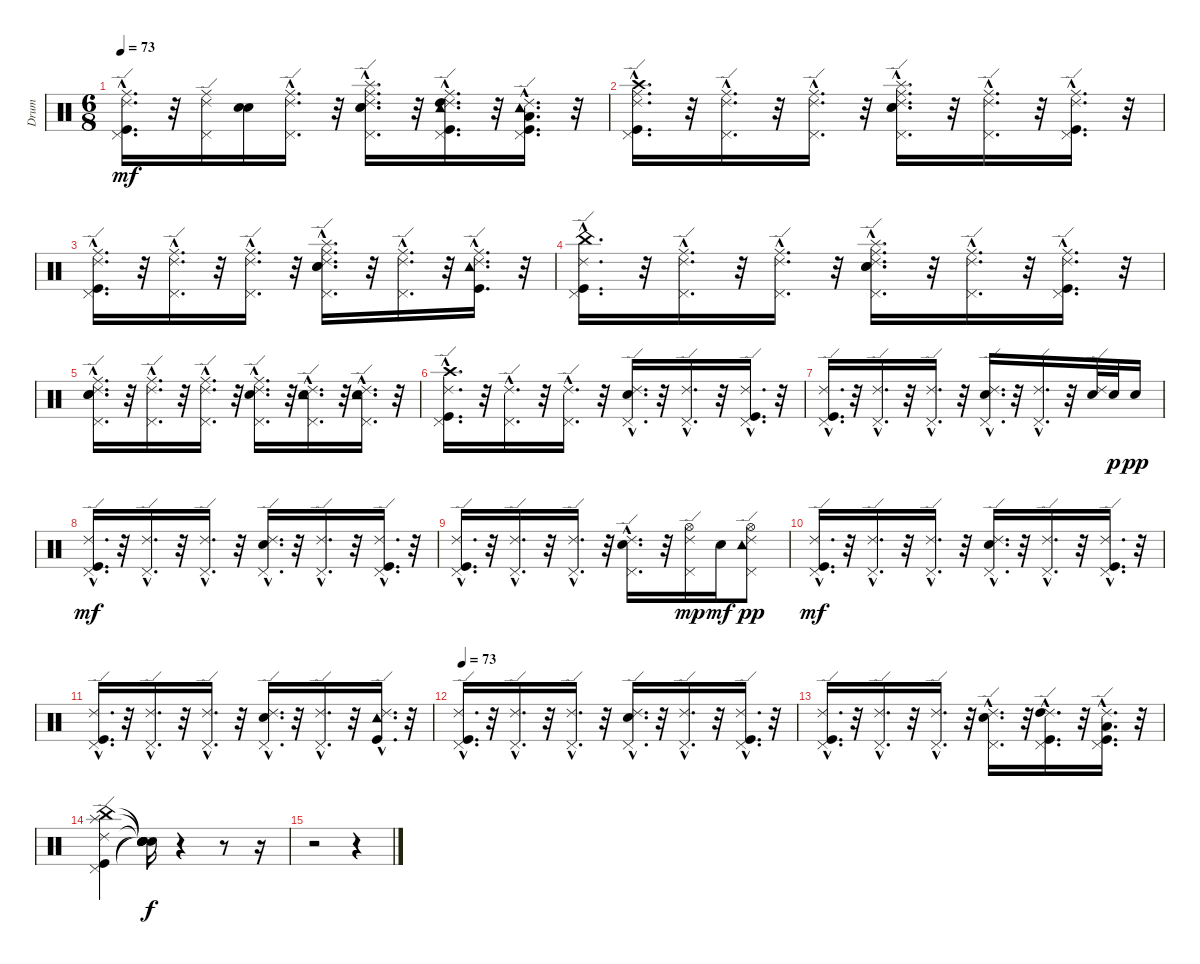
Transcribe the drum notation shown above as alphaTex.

\track ("Drum" "Drum") {instrument percussion}
\staff {score}
\articulation defaults
\ts (6 8)
\tempo 73
\clef neutral
\ks c
("Ride (edge) 2"{hac} "Pedal Hi-Hat (hit)"{hac} "Kick (hit)"{hac} "Ride (middle)"{hac}).16{d dy mf} r.32 ("Pedal Hi-Hat (hit)" "Ride (edge) 2" "Ride (middle)").16 ("Snare (hit) 2" "Electric Snare (hit)").16 ("Ride (edge) 2"{hac} "Pedal Hi-Hat (hit)"{hac} "Ride (middle)"{hac}).16{d} r.32 ("Ride (edge) 2"{hac} "Snare (hit) 2"{hac} "Splash (hit)"{hac} "Pedal Hi-Hat (hit)"{hac} "Electric Snare (hit)"{hac} "Ride (middle)"{hac}).16{d} r.32 ("Ride (edge) 2"{hac} "Pedal Hi-Hat (hit)"{hac} "Kick (hit)"{hac} "High Tom (hit)"{hac} "Ride (middle)"{hac} "Tambourine (hit)"{hac}).16{d} r.32 ("Ride (edge) 2"{hac} "Pedal Hi-Hat (hit)"{hac} "Kick (hit)"{hac} "Low Tom (hit)"{hac} "Tambourine (hit)"{hac}).16{d} r.32 |
("Crash high (hit)"{hac} "Pedal Hi-Hat (hit)"{hac} "Kick (hit)"{hac} "Ride (edge) 2"{hac} "Ride (middle)"{hac}).16{d} r.32 ("Ride (edge) 2"{hac} "Pedal Hi-Hat (hit)"{hac} "Ride (middle)"{hac}).16{d} r.32 ("Pedal Hi-Hat (hit)"{hac} "Ride (edge) 2"{hac} "Ride (middle)"{hac}).16{d} r.32 ("Splash (hit)"{hac} "Pedal Hi-Hat (hit)"{hac} "Snare (hit) 2"{hac} "Ride (edge) 2"{hac} "Electric Snare (hit)"{hac} "Ride (middle)"{hac}).16{d} r.32 ("Pedal Hi-Hat (hit)"{hac} "Ride (edge) 2"{hac} "Ride (middle)"{hac}).16{d} r.32 ("Pedal Hi-Hat (hit)"{hac} "Kick (hit)"{hac} "Ride (edge) 2"{hac} "Ride (middle)"{hac}).16{d} r.32 |
("Pedal Hi-Hat (hit)"{hac} "Ride (edge) 2"{hac} "Kick (hit)"{hac} "Ride (middle)"{hac}).16{d} r.32 ("Ride (edge) 2"{hac} "Pedal Hi-Hat (hit)"{hac} "Ride (middle)"{hac}).16{d} r.32 ("Pedal Hi-Hat (hit)"{hac} "Ride (edge) 2"{hac} "Ride (middle)"{hac}).16{d} r.32 ("Splash (hit)"{hac} "Pedal Hi-Hat (hit)"{hac} "Snare (hit) 2"{hac} "Ride (edge) 2"{hac} "Electric Snare (hit)"{hac} "Ride (middle)"{hac}).16{d} r.32 ("Pedal Hi-Hat (hit)"{hac} "Ride (edge) 2"{hac} "Ride (middle)"{hac}).16{d} r.32 ("Tambourine (hit)"{hac} "Ride (edge) 2"{hac} "Kick (hit)"{hac} "Ride (middle)"{hac}).16{d} r.32 |
("Kick (hit)"{hac} "Pedal Hi-Hat (hit)"{hac} "Ride (edge) 2"{hac} "China (hit)"{hac}).16{d} r.32 ("Pedal Hi-Hat (hit)"{hac} "Ride (edge) 2"{hac} "Ride (middle)"{hac}).16{d} r.32 ("Pedal Hi-Hat (hit)"{hac} "Ride (edge) 2"{hac} "Ride (middle)"{hac}).16{d} r.32 ("Snare (hit) 2"{hac} "Pedal Hi-Hat (hit)"{hac} "Splash (hit)"{hac} "Ride (edge) 2"{hac} "Electric Snare (hit)"{hac} "Ride (middle)"{hac}).16{d} r.32 ("Ride (edge) 2"{hac} "Pedal Hi-Hat (hit)"{hac} "Ride (middle)"{hac}).16{d} r.32 ("Ride (edge) 2"{hac} "Kick (hit)"{hac} "Pedal Hi-Hat (hit)"{hac} "Ride (middle)"{hac}).16{d} r.32 |
("Ride (edge) 2"{hac} "Snare (hit) 2"{hac} "Pedal Hi-Hat (hit)"{hac} "Electric Snare (hit)"{hac} "Ride (middle)"{hac}).16{d} r.32 ("Ride (edge) 2"{hac} "Pedal Hi-Hat (hit)"{hac} "Ride (middle)"{hac}).16{d} r.32 ("Ride (edge) 2"{hac} "Pedal Hi-Hat (hit)"{hac} "Ride (middle)"{hac}).16{d} r.32 ("Ride (edge) 2"{hac} "Electric Snare (hit)"{hac} "Pedal Hi-Hat (hit)"{hac} "Ride (middle)"{hac}).16{d} r.32 ("Ride (edge) 2"{hac} "Snare (hit) 2"{hac} "Pedal Hi-Hat (hit)"{hac} "Tambourine (hit)"{hac}).16{d} r.32 ("Ride (edge) 2"{hac} "Snare (hit) 2"{hac} "Pedal Hi-Hat (hit)"{hac} "Tambourine (hit)"{hac}).16{d} r.32 |
("Ride (edge) 2"{hac} "Pedal Hi-Hat (hit)"{hac} "Crash high (hit)"{hac} "Kick (hit)"{hac}).16{d} r.32 ("Pedal Hi-Hat (hit)"{hac} "Ride (edge) 2"{hac}).16{d} r.32 ("Pedal Hi-Hat (hit)"{hac} "Ride (edge) 2"{hac}).16{d} r.32 ("Snare (hit) 2"{hac} "Pedal Hi-Hat (hit)"{hac} "Ride (edge) 2"{hac}).16{d} r.32 ("Pedal Hi-Hat (hit)"{hac} "Ride (edge) 2"{hac}).16{d} r.32 ("Kick (hit)"{hac} "Pedal Hi-Hat (hit)"{hac} "Ride (edge) 2"{hac}).16{d} r.32 |
("Pedal Hi-Hat (hit)"{hac} "Kick (hit)"{hac} "Ride (edge) 2"{hac}).16{d} r.32 ("Ride (edge) 2"{hac} "Pedal Hi-Hat (hit)"{hac}).16{d} r.32 ("Ride (edge) 2"{hac} "Pedal Hi-Hat (hit)"{hac}).16{d} r.32 ("Pedal Hi-Hat (hit)"{hac} "Ride (edge) 2"{hac} "Snare (hit) 2"{hac}).16{d} r.32 ("Ride (edge) 2"{hac} "Pedal Hi-Hat (hit)"{hac}).16{d} r.32 ("Ride (edge) 2" "Snare (hit) 2").32 "Snare (hit) 2".32{dy p} "Snare (hit) 2".16{dy pp} |
("Kick (hit)"{hac} "Pedal Hi-Hat (hit)"{hac} "Ride (edge) 2"{hac}).16{d dy mf} r.32 ("Pedal Hi-Hat (hit)"{hac} "Ride (edge) 2"{hac}).16{d} r.32 ("Pedal Hi-Hat (hit)"{hac} "Ride (edge) 2"{hac}).16{d} r.32 ("Snare (hit) 2"{hac} "Pedal Hi-Hat (hit)"{hac} "Ride (edge) 2"{hac}).16{d} r.32 ("Pedal Hi-Hat (hit)"{hac} "Ride (edge) 2"{hac}).16{d} r.32 ("Kick (hit)"{hac} "Pedal Hi-Hat (hit)"{hac} "Ride (edge) 2"{hac}).16{d} r.32 |
("Pedal Hi-Hat (hit)"{hac} "Kick (hit)"{hac} "Ride (edge) 2"{hac}).16{d} r.32 ("Pedal Hi-Hat (hit)"{hac} "Ride (edge) 2"{hac}).16{d} r.32 ("Ride (edge) 2"{hac} "Pedal Hi-Hat (hit)"{hac}).16{d} r.32 ("Pedal Hi-Hat (hit)"{hac} "Ride (edge) 2"{hac} "Snare (hit) 2"{hac}).16{d} r.32 ("Pedal Hi-Hat (hit)" "Ride (edge) 2" "Hi-Hat (open)").16{dy mp} "Snare (hit) 2".16{dy mf} ("Tambourine (hit)" "Pedal Hi-Hat (hit)" "Ride (edge) 2" "Hi-Hat (open)").8{dy pp} |
("Ride (edge) 2"{hac} "Kick (hit)"{hac} "Pedal Hi-Hat (hit)"{hac}).16{d dy mf} r.32 ("Pedal Hi-Hat (hit)"{hac} "Ride (edge) 2"{hac}).16{d} r.32 ("Pedal Hi-Hat (hit)"{hac} "Ride (edge) 2"{hac}).16{d} r.32 ("Pedal Hi-Hat (hit)"{hac} "Ride (edge) 2"{hac} "Snare (hit) 2"{hac}).16{d} r.32 ("Ride (edge) 2"{hac} "Pedal Hi-Hat (hit)"{hac}).16{d} r.32 ("Ride (edge) 2"{hac} "Kick (hit)"{hac} "Pedal Hi-Hat (hit)"{hac}).16{d} r.32 |
("Kick (hit)"{hac} "Ride (edge) 2"{hac} "Pedal Hi-Hat (hit)"{hac}).16{d} r.32 ("Ride (edge) 2"{hac} "Pedal Hi-Hat (hit)"{hac}).16{d} r.32 ("Ride (edge) 2"{hac} "Pedal Hi-Hat (hit)"{hac}).16{d} r.32 ("Snare (hit) 2"{hac} "Pedal Hi-Hat (hit)"{hac} "Ride (edge) 2"{hac}).16{d} r.32 ("Pedal Hi-Hat (hit)"{hac} "Ride (edge) 2"{hac}).16{d} r.32 ("Ride (edge) 2"{hac} "Tambourine (hit)"{hac} "Kick (hit)"{hac}).16{d} r.32 |
\tempo 73
("Kick (hit)"{hac} "Ride (edge) 2"{hac} "Pedal Hi-Hat (hit)"{hac}).16{d} r.32 ("Pedal Hi-Hat (hit)"{hac} "Ride (edge) 2"{hac}).16{d} r.32 ("Pedal Hi-Hat (hit)"{hac} "Ride (edge) 2"{hac}).16{d} r.32 ("Pedal Hi-Hat (hit)"{hac} "Snare (hit) 2"{hac} "Ride (edge) 2"{hac}).16{d} r.32 ("Pedal Hi-Hat (hit)"{hac} "Ride (edge) 2"{hac}).16{d} r.32 ("Pedal Hi-Hat (hit)"{hac} "Ride (edge) 2"{hac} "Kick (hit)"{hac}).16{d} r.32 |
("Ride (edge) 2"{hac} "Pedal Hi-Hat (hit)"{hac} "Kick (hit)"{hac}).16{d} r.32 ("Pedal Hi-Hat (hit)"{hac} "Ride (edge) 2"{hac}).16{d} r.32 ("Pedal Hi-Hat (hit)"{hac} "Ride (edge) 2"{hac}).16{d} r.32 ("Ride (edge) 2"{hac} "Pedal Hi-Hat (hit)"{hac} "Snare (hit) 2"{hac}).16{d} r.32 ("Pedal Hi-Hat (hit)"{hac} "Ride (edge) 2"{hac} "High Tom (hit)"{hac} "Kick (hit)"{hac}).16{d} r.32 ("Pedal Hi-Hat (hit)"{hac} "Kick (hit)"{hac} "Low Tom (hit)"{hac} "Ride (edge) 2"{hac}).16{d} r.32 |
("Pedal Hi-Hat (hit)" "Kick (hit)" "Splash (hit)" "China (hit)" "Ride (edge) 2").4 ("Snare (hit)"{t} "Snare (hit)"{t} "Snare (hit)"{t} "Snare (hit)"{t} "Snare (hit)"{t}).16{dy f} r.4 r.8 r.16 |
r.2 r.4
